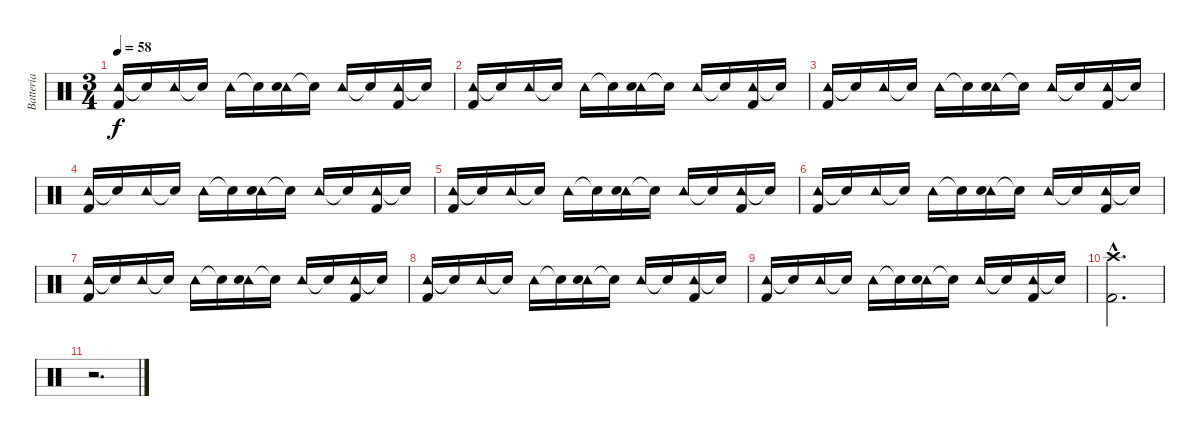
\track ("Batteria" "Batteria") {instrument percussion}
\staff {score}
\articulation defaults
\ts (3 4)
\tempo 58
\clef neutral
\ks c
("Tambourine (hit)" "Kick (hit) 2").16{dy f} "Snare (hit)"{t}.16 "Tambourine (hit)".16 "Snare (hit)"{t}.16 "Tambourine (hit)".16 "Snare (hit)"{t}.16 ("Tambourine (hit)" "Electric Snare (hit)").16 "Snare (hit)"{t}.16 "Tambourine (hit)".16 "Snare (hit)"{t}.16 ("Tambourine (hit)" "Kick (hit) 2").16 "Snare (hit)"{t}.16 |
("Tambourine (hit)" "Kick (hit) 2").16 "Snare (hit)"{t}.16 "Tambourine (hit)".16 "Snare (hit)"{t}.16 "Tambourine (hit)".16 "Snare (hit)"{t}.16 ("Tambourine (hit)" "Electric Snare (hit)").16 "Snare (hit)"{t}.16 "Tambourine (hit)".16 "Snare (hit)"{t}.16 ("Tambourine (hit)" "Kick (hit) 2").16 "Snare (hit)"{t}.16 |
("Tambourine (hit)" "Kick (hit) 2").16 "Snare (hit)"{t}.16 "Tambourine (hit)".16 "Snare (hit)"{t}.16 "Tambourine (hit)".16 "Snare (hit)"{t}.16 ("Tambourine (hit)" "Electric Snare (hit)").16 "Snare (hit)"{t}.16 "Tambourine (hit)".16 "Snare (hit)"{t}.16 ("Tambourine (hit)" "Kick (hit) 2").16 "Snare (hit)"{t}.16 |
("Tambourine (hit)" "Kick (hit) 2").16 "Snare (hit)"{t}.16 "Tambourine (hit)".16 "Snare (hit)"{t}.16 "Tambourine (hit)".16 "Snare (hit)"{t}.16 ("Tambourine (hit)" "Electric Snare (hit)").16 "Snare (hit)"{t}.16 "Tambourine (hit)".16 "Snare (hit)"{t}.16 ("Tambourine (hit)" "Kick (hit) 2").16 "Snare (hit)"{t}.16 |
("Tambourine (hit)" "Kick (hit) 2").16 "Snare (hit)"{t}.16 "Tambourine (hit)".16 "Snare (hit)"{t}.16 "Tambourine (hit)".16 "Snare (hit)"{t}.16 ("Tambourine (hit)" "Electric Snare (hit)").16 "Snare (hit)"{t}.16 "Tambourine (hit)".16 "Snare (hit)"{t}.16 ("Tambourine (hit)" "Kick (hit) 2").16 "Snare (hit)"{t}.16 |
("Tambourine (hit)" "Kick (hit) 2").16 "Snare (hit)"{t}.16 "Tambourine (hit)".16 "Snare (hit)"{t}.16 "Tambourine (hit)".16 "Snare (hit)"{t}.16 ("Tambourine (hit)" "Electric Snare (hit)").16 "Snare (hit)"{t}.16 "Tambourine (hit)".16 "Snare (hit)"{t}.16 ("Tambourine (hit)" "Kick (hit) 2").16 "Snare (hit)"{t}.16 |
("Tambourine (hit)" "Kick (hit) 2").16 "Snare (hit)"{t}.16 "Tambourine (hit)".16 "Snare (hit)"{t}.16 "Tambourine (hit)".16 "Snare (hit)"{t}.16 ("Tambourine (hit)" "Electric Snare (hit)").16 "Snare (hit)"{t}.16 "Tambourine (hit)".16 "Snare (hit)"{t}.16 ("Tambourine (hit)" "Kick (hit) 2").16 "Snare (hit)"{t}.16 |
("Tambourine (hit)" "Kick (hit) 2").16 "Snare (hit)"{t}.16 "Tambourine (hit)".16 "Snare (hit)"{t}.16 "Tambourine (hit)".16 "Snare (hit)"{t}.16 ("Tambourine (hit)" "Electric Snare (hit)").16 "Snare (hit)"{t}.16 "Tambourine (hit)".16 "Snare (hit)"{t}.16 ("Tambourine (hit)" "Kick (hit) 2").16 "Snare (hit)"{t}.16 |
("Tambourine (hit)" "Kick (hit) 2").16 "Snare (hit)"{t}.16 "Tambourine (hit)".16 "Snare (hit)"{t}.16 "Tambourine (hit)".16 "Snare (hit)"{t}.16 ("Tambourine (hit)" "Electric Snare (hit)").16 "Snare (hit)"{t}.16 "Tambourine (hit)".16 "Snare (hit)"{t}.16 ("Tambourine (hit)" "Kick (hit) 2").16 "Snare (hit)"{t}.16 |
("Crash high (hit)"{hac} "Kick (hit) 2"{hac}).2{d} |
r.2{d}
